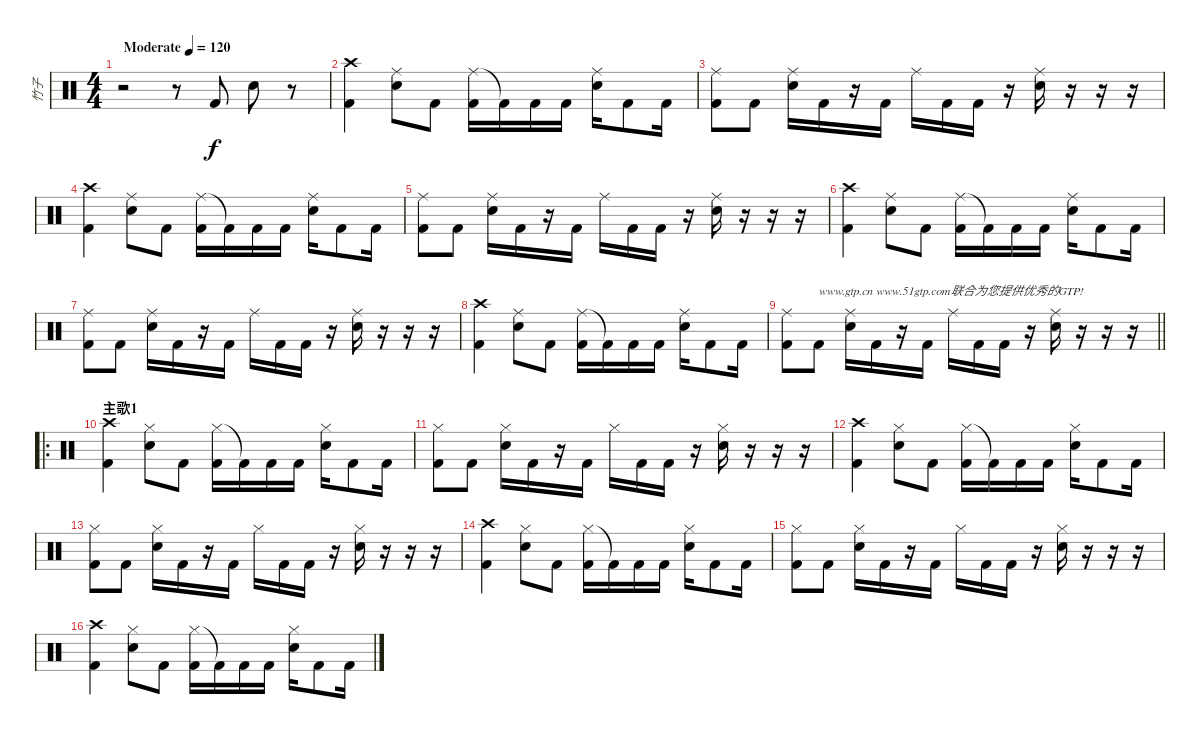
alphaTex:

\track ("竹子" "竹子") {instrument percussion}
\staff {score}
\articulation defaults
\ts (4 4)
\tempo (120 "Moderate")
\clef neutral
\ks c
r.2{dy f} r.8 "Kick (hit) 2".8 "Electric Snare (hit)".8 r.8 |
("Crash high (hit)" "Kick (hit) 2").4 ("Ride (middle)" "Electric Snare (hit)").8 "Kick (hit) 2".8 ("Ride (middle)" "Kick (hit) 2").16 "Kick (hit) 2"{t}.16 "Kick (hit) 2".16 "Kick (hit) 2".16 ("Ride (middle)" "Electric Snare (hit)").16 "Kick (hit) 2".8 "Kick (hit) 2".16 |
("Ride (middle)" "Kick (hit) 2").8 "Kick (hit) 2".8 ("Ride (middle)" "Electric Snare (hit)").16 "Kick (hit) 2".16 r.16 "Kick (hit) 2".16 "Ride (middle)".16 "Kick (hit) 2".16 "Kick (hit) 2".16 r.16 ("Ride (middle)" "Electric Snare (hit)").16 r.16 r.16 r.16 |
("Crash high (hit)" "Kick (hit) 2").4 ("Ride (middle)" "Electric Snare (hit)").8 "Kick (hit) 2".8 ("Ride (middle)" "Kick (hit) 2").16 "Kick (hit) 2"{t}.16 "Kick (hit) 2".16 "Kick (hit) 2".16 ("Ride (middle)" "Electric Snare (hit)").16 "Kick (hit) 2".8 "Kick (hit) 2".16 |
("Ride (middle)" "Kick (hit) 2").8 "Kick (hit) 2".8 ("Ride (middle)" "Electric Snare (hit)").16 "Kick (hit) 2".16 r.16 "Kick (hit) 2".16 "Ride (middle)".16 "Kick (hit) 2".16 "Kick (hit) 2".16 r.16 ("Ride (middle)" "Electric Snare (hit)").16 r.16 r.16 r.16 |
("Crash high (hit)" "Kick (hit) 2").4 ("Ride (middle)" "Electric Snare (hit)").8 "Kick (hit) 2".8 ("Ride (middle)" "Kick (hit) 2").16 "Kick (hit) 2"{t}.16 "Kick (hit) 2".16 "Kick (hit) 2".16 ("Ride (middle)" "Electric Snare (hit)").16 "Kick (hit) 2".8 "Kick (hit) 2".16 |
("Ride (middle)" "Kick (hit) 2").8 "Kick (hit) 2".8 ("Ride (middle)" "Electric Snare (hit)").16 "Kick (hit) 2".16 r.16 "Kick (hit) 2".16 "Ride (middle)".16 "Kick (hit) 2".16 "Kick (hit) 2".16 r.16 ("Ride (middle)" "Electric Snare (hit)").16 r.16 r.16 r.16 |
("Crash high (hit)" "Kick (hit) 2").4 ("Ride (middle)" "Electric Snare (hit)").8 "Kick (hit) 2".8 ("Ride (middle)" "Kick (hit) 2").16 "Kick (hit) 2"{t}.16 "Kick (hit) 2".16 "Kick (hit) 2".16 ("Ride (middle)" "Electric Snare (hit)").16 "Kick (hit) 2".8 "Kick (hit) 2".16 |
\barLineRight lightlight
("Ride (middle)" "Kick (hit) 2").8 "Kick (hit) 2".8{txt "www.gtp.cn www.51gtp.com联合为您提供优秀的GTP!"} ("Ride (middle)" "Electric Snare (hit)").16 "Kick (hit) 2".16 r.16 "Kick (hit) 2".16 "Ride (middle)".16 "Kick (hit) 2".16 "Kick (hit) 2".16 r.16 ("Ride (middle)" "Electric Snare (hit)").16 r.16 r.16 r.16 |
\ro
\section ("" "主歌1")
("Crash high (hit)" "Kick (hit) 2").4 ("Hi-Hat (closed)" "Electric Snare (hit)").8 "Kick (hit) 2".8 ("Hi-Hat (closed)" "Kick (hit) 2").16 "Kick (hit) 2"{t}.16 "Kick (hit) 2".16 "Kick (hit) 2".16 ("Hi-Hat (closed)" "Electric Snare (hit)").16 "Kick (hit) 2".8 "Kick (hit) 2".16 |
("Hi-Hat (closed)" "Kick (hit) 2").8 "Kick (hit) 2".8 ("Hi-Hat (closed)" "Electric Snare (hit)").16 "Kick (hit) 2".16 r.16 "Kick (hit) 2".16 "Hi-Hat (closed)".16 "Kick (hit) 2".16 "Kick (hit) 2".16 r.16 ("Hi-Hat (closed)" "Electric Snare (hit)").16 r.16 r.16 r.16 |
("Crash high (hit)" "Kick (hit) 2").4 ("Hi-Hat (closed)" "Electric Snare (hit)").8 "Kick (hit) 2".8 ("Hi-Hat (closed)" "Kick (hit) 2").16 "Kick (hit) 2"{t}.16 "Kick (hit) 2".16 "Kick (hit) 2".16 ("Hi-Hat (closed)" "Electric Snare (hit)").16 "Kick (hit) 2".8 "Kick (hit) 2".16 |
("Hi-Hat (closed)" "Kick (hit) 2").8 "Kick (hit) 2".8 ("Hi-Hat (closed)" "Electric Snare (hit)").16 "Kick (hit) 2".16 r.16 "Kick (hit) 2".16 "Hi-Hat (closed)".16 "Kick (hit) 2".16 "Kick (hit) 2".16 r.16 ("Hi-Hat (closed)" "Electric Snare (hit)").16 r.16 r.16 r.16 |
("Crash high (hit)" "Kick (hit) 2").4 ("Hi-Hat (closed)" "Electric Snare (hit)").8 "Kick (hit) 2".8 ("Hi-Hat (closed)" "Kick (hit) 2").16 "Kick (hit) 2"{t}.16 "Kick (hit) 2".16 "Kick (hit) 2".16 ("Hi-Hat (closed)" "Electric Snare (hit)").16 "Kick (hit) 2".8 "Kick (hit) 2".16 |
("Hi-Hat (closed)" "Kick (hit) 2").8 "Kick (hit) 2".8 ("Hi-Hat (closed)" "Electric Snare (hit)").16 "Kick (hit) 2".16 r.16 "Kick (hit) 2".16 "Hi-Hat (closed)".16 "Kick (hit) 2".16 "Kick (hit) 2".16 r.16 ("Hi-Hat (closed)" "Electric Snare (hit)").16 r.16 r.16 r.16 |
("Crash high (hit)" "Kick (hit) 2").4 ("Hi-Hat (closed)" "Electric Snare (hit)").8 "Kick (hit) 2".8 ("Hi-Hat (closed)" "Kick (hit) 2").16 "Kick (hit) 2"{t}.16 "Kick (hit) 2".16 "Kick (hit) 2".16 ("Hi-Hat (closed)" "Electric Snare (hit)").16 "Kick (hit) 2".8 "Kick (hit) 2".16
